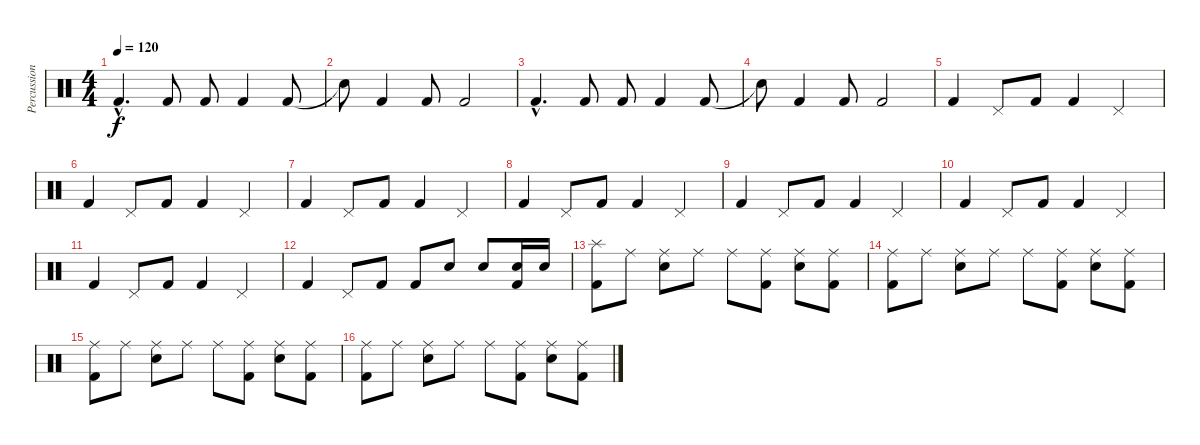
\track ("Percussion" "Percussion") {instrument percussion}
\staff {score}
\articulation defaults
\ts (4 4)
\tempo 120
\clef neutral
\ks c "Kick (hit) 2"{hac}.4{d dy f} "Kick (hit) 2".8 "Kick (hit) 2".8 "Kick (hit) 2".4 "Kick (hit) 2".8
|
"Snare (hit)"{t}.8 "Kick (hit) 2".4 "Kick (hit) 2".8 "Kick (hit) 2".2 |
"Kick (hit) 2"{hac}.4{d} "Kick (hit) 2".8 "Kick (hit) 2".8 "Kick (hit) 2".4 "Kick (hit) 2".8 |
"Snare (hit)"{t}.8 "Kick (hit) 2".4 "Kick (hit) 2".8 "Kick (hit) 2".2 |
"Kick (hit) 2".4 "Pedal Hi-Hat (hit)".8 "Kick (hit) 2".8 "Kick (hit) 2".4 "Pedal Hi-Hat (hit)".4 |
"Kick (hit) 2".4 "Pedal Hi-Hat (hit)".8 "Kick (hit) 2".8 "Kick (hit) 2".4 "Pedal Hi-Hat (hit)".4 |
"Kick (hit) 2".4 "Pedal Hi-Hat (hit)".8 "Kick (hit) 2".8 "Kick (hit) 2".4 "Pedal Hi-Hat (hit)".4 |
"Kick (hit) 2".4 "Pedal Hi-Hat (hit)".8 "Kick (hit) 2".8 "Kick (hit) 2".4 "Pedal Hi-Hat (hit)".4 |
"Kick (hit) 2".4 "Pedal Hi-Hat (hit)".8 "Kick (hit) 2".8 "Kick (hit) 2".4 "Pedal Hi-Hat (hit)".4 |
"Kick (hit) 2".4 "Pedal Hi-Hat (hit)".8 "Kick (hit) 2".8 "Kick (hit) 2".4 "Pedal Hi-Hat (hit)".4 |
"Kick (hit) 2".4 "Pedal Hi-Hat (hit)".8 "Kick (hit) 2".8 "Kick (hit) 2".4 "Pedal Hi-Hat (hit)".4 |
"Kick (hit) 2".4 "Pedal Hi-Hat (hit)".8 "Kick (hit) 2".8 "Kick (hit) 2".8 "Snare (hit) 2".8 "Snare (hit) 2".8 ("Snare (hit) 2" "Kick (hit) 2").16 "Snare (hit) 2".16 |
("Splash (hit)" "Kick (hit) 2").8 "Ride (middle)".8 ("Ride (middle)" "Snare (hit) 2").8 "Ride (middle)".8 "Ride (middle)".8 ("Ride (middle)" "Kick (hit) 2").8 ("Ride (middle)" "Snare (hit) 2").8 ("Ride (middle)" "Kick (hit) 2").8 |
("Ride (middle)" "Kick (hit) 2").8 "Ride (middle)".8 ("Ride (middle)" "Snare (hit) 2").8 "Ride (middle)".8 "Ride (middle)".8 ("Ride (middle)" "Kick (hit) 2").8 ("Ride (middle)" "Snare (hit) 2").8 ("Ride (middle)" "Kick (hit) 2").8 |
("Ride (middle)" "Kick (hit) 2").8 "Ride (middle)".8 ("Ride (middle)" "Snare (hit) 2").8 "Ride (middle)".8 "Ride (middle)".8 ("Ride (middle)" "Kick (hit) 2").8 ("Ride (middle)" "Snare (hit) 2").8 ("Ride (middle)" "Kick (hit) 2").8 |
("Ride (middle)" "Kick (hit) 2").8 "Ride (middle)".8 ("Ride (middle)" "Snare (hit) 2").8 "Ride (middle)".8 "Ride (middle)".8 ("Ride (middle)" "Kick (hit) 2").8 ("Ride (middle)" "Snare (hit) 2").8 ("Ride (middle)" "Kick (hit) 2").8
